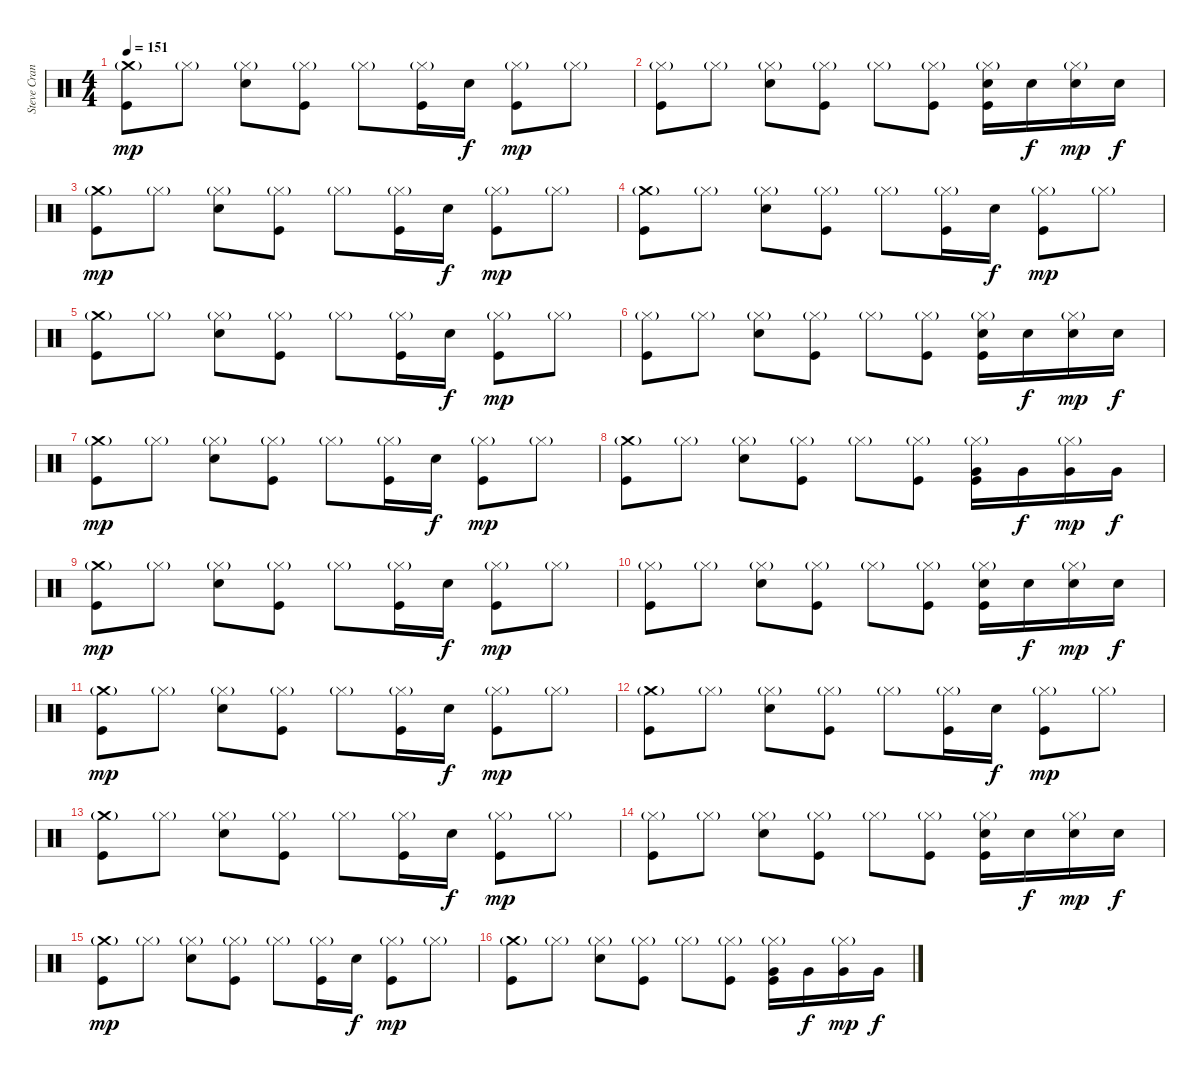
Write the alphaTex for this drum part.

\track ("Steve Crane" "Steve Cran") {instrument percussion}
\staff {score}
\articulation defaults
\ts (4 4)
\tempo 151
\clef neutral
\ks c
("Crash medium (hit)"{g} "Kick (hit)").8{dy mp} "Hi-Hat (closed)"{g}.8 ("Hi-Hat (closed)"{g} "Snare (hit) 2").8 ("Hi-Hat (closed)"{g} "Kick (hit)").8 "Hi-Hat (closed)"{g}.8 ("Hi-Hat (closed)"{g} "Kick (hit)").16 "Snare (hit) 2".16{dy f} ("Hi-Hat (closed)"{g} "Kick (hit)").8{dy mp} "Hi-Hat (closed)"{g}.8 |
("Hi-Hat (closed)"{g} "Kick (hit)").8 "Hi-Hat (closed)"{g}.8 ("Hi-Hat (closed)"{g} "Snare (hit) 2").8 ("Hi-Hat (closed)"{g} "Kick (hit)").8 "Hi-Hat (closed)"{g}.8 ("Hi-Hat (closed)"{g} "Kick (hit)").8 ("Hi-Hat (closed)"{g} "Snare (hit) 2" "Kick (hit)").16 "Snare (hit) 2".16{dy f} ("Hi-Hat (closed)"{g} "Snare (hit) 2").16{dy mp} "Snare (hit) 2".16{dy f} |
("Crash medium (hit)"{g} "Kick (hit)").8{dy mp} "Hi-Hat (closed)"{g}.8 ("Hi-Hat (closed)"{g} "Snare (hit) 2").8 ("Hi-Hat (closed)"{g} "Kick (hit)").8 "Hi-Hat (closed)"{g}.8 ("Hi-Hat (closed)"{g} "Kick (hit)").16 "Snare (hit) 2".16{dy f} ("Hi-Hat (closed)"{g} "Kick (hit)").8{dy mp} "Hi-Hat (closed)"{g}.8 |
("Crash medium (hit)"{g} "Kick (hit)").8 "Hi-Hat (closed)"{g}.8 ("Hi-Hat (closed)"{g} "Snare (hit) 2").8 ("Hi-Hat (closed)"{g} "Kick (hit)").8 "Hi-Hat (closed)"{g}.8 ("Hi-Hat (closed)"{g} "Kick (hit)").16 "Snare (hit) 2".16{dy f} ("Hi-Hat (closed)"{g} "Kick (hit)").8{dy mp} "Hi-Hat (closed)"{g}.8 |
("Crash medium (hit)"{g} "Kick (hit)").8 "Hi-Hat (closed)"{g}.8 ("Hi-Hat (closed)"{g} "Snare (hit) 2").8 ("Hi-Hat (closed)"{g} "Kick (hit)").8 "Hi-Hat (closed)"{g}.8 ("Hi-Hat (closed)"{g} "Kick (hit)").16 "Snare (hit) 2".16{dy f} ("Hi-Hat (closed)"{g} "Kick (hit)").8{dy mp} "Hi-Hat (closed)"{g}.8 |
("Hi-Hat (closed)"{g} "Kick (hit)").8 "Hi-Hat (closed)"{g}.8 ("Hi-Hat (closed)"{g} "Snare (hit) 2").8 ("Hi-Hat (closed)"{g} "Kick (hit)").8 "Hi-Hat (closed)"{g}.8 ("Hi-Hat (closed)"{g} "Kick (hit)").8 ("Hi-Hat (closed)"{g} "Snare (hit) 2" "Kick (hit)").16 "Snare (hit) 2".16{dy f} ("Hi-Hat (closed)"{g} "Snare (hit) 2").16{dy mp} "Snare (hit) 2".16{dy f} |
("Crash medium (hit)"{g} "Kick (hit)").8{dy mp} "Hi-Hat (closed)"{g}.8 ("Hi-Hat (closed)"{g} "Snare (hit) 2").8 ("Hi-Hat (closed)"{g} "Kick (hit)").8 "Hi-Hat (closed)"{g}.8 ("Hi-Hat (closed)"{g} "Kick (hit)").16 "Snare (hit) 2".16{dy f} ("Hi-Hat (closed)"{g} "Kick (hit)").8{dy mp} "Hi-Hat (closed)"{g}.8 |
("Crash medium (hit)"{g} "Kick (hit)").8 "Hi-Hat (closed)"{g}.8 ("Hi-Hat (closed)"{g} "Snare (hit) 2").8 ("Hi-Hat (closed)"{g} "Kick (hit)").8 "Hi-Hat (closed)"{g}.8 ("Hi-Hat (closed)"{g} "Kick (hit)").8 ("Hi-Hat (closed)"{g} "Very Low Tom (hit)" "Kick (hit)").16 "Very Low Tom (hit)".16{dy f} ("Hi-Hat (closed)"{g} "Very Low Tom (hit)").16{dy mp} "Very Low Tom (hit)".16{dy f} |
("Crash medium (hit)"{g} "Kick (hit)").8{dy mp} "Hi-Hat (closed)"{g}.8 ("Hi-Hat (closed)"{g} "Snare (hit) 2").8 ("Hi-Hat (closed)"{g} "Kick (hit)").8 "Hi-Hat (closed)"{g}.8 ("Hi-Hat (closed)"{g} "Kick (hit)").16 "Snare (hit) 2".16{dy f} ("Hi-Hat (closed)"{g} "Kick (hit)").8{dy mp} "Hi-Hat (closed)"{g}.8 |
("Hi-Hat (closed)"{g} "Kick (hit)").8 "Hi-Hat (closed)"{g}.8 ("Hi-Hat (closed)"{g} "Snare (hit) 2").8 ("Hi-Hat (closed)"{g} "Kick (hit)").8 "Hi-Hat (closed)"{g}.8 ("Hi-Hat (closed)"{g} "Kick (hit)").8 ("Hi-Hat (closed)"{g} "Snare (hit) 2" "Kick (hit)").16 "Snare (hit) 2".16{dy f} ("Hi-Hat (closed)"{g} "Snare (hit) 2").16{dy mp} "Snare (hit) 2".16{dy f} |
("Crash medium (hit)"{g} "Kick (hit)").8{dy mp} "Hi-Hat (closed)"{g}.8 ("Hi-Hat (closed)"{g} "Snare (hit) 2").8 ("Hi-Hat (closed)"{g} "Kick (hit)").8 "Hi-Hat (closed)"{g}.8 ("Hi-Hat (closed)"{g} "Kick (hit)").16 "Snare (hit) 2".16{dy f} ("Hi-Hat (closed)"{g} "Kick (hit)").8{dy mp} "Hi-Hat (closed)"{g}.8 |
("Crash medium (hit)"{g} "Kick (hit)").8 "Hi-Hat (closed)"{g}.8 ("Hi-Hat (closed)"{g} "Snare (hit) 2").8 ("Hi-Hat (closed)"{g} "Kick (hit)").8 "Hi-Hat (closed)"{g}.8 ("Hi-Hat (closed)"{g} "Kick (hit)").16 "Snare (hit) 2".16{dy f} ("Hi-Hat (closed)"{g} "Kick (hit)").8{dy mp} "Hi-Hat (closed)"{g}.8 |
("Crash medium (hit)"{g} "Kick (hit)").8 "Hi-Hat (closed)"{g}.8 ("Hi-Hat (closed)"{g} "Snare (hit) 2").8 ("Hi-Hat (closed)"{g} "Kick (hit)").8 "Hi-Hat (closed)"{g}.8 ("Hi-Hat (closed)"{g} "Kick (hit)").16 "Snare (hit) 2".16{dy f} ("Hi-Hat (closed)"{g} "Kick (hit)").8{dy mp} "Hi-Hat (closed)"{g}.8 |
("Hi-Hat (closed)"{g} "Kick (hit)").8 "Hi-Hat (closed)"{g}.8 ("Hi-Hat (closed)"{g} "Snare (hit) 2").8 ("Hi-Hat (closed)"{g} "Kick (hit)").8 "Hi-Hat (closed)"{g}.8 ("Hi-Hat (closed)"{g} "Kick (hit)").8 ("Hi-Hat (closed)"{g} "Snare (hit) 2" "Kick (hit)").16 "Snare (hit) 2".16{dy f} ("Hi-Hat (closed)"{g} "Snare (hit) 2").16{dy mp} "Snare (hit) 2".16{dy f} |
("Crash medium (hit)"{g} "Kick (hit)").8{dy mp} "Hi-Hat (closed)"{g}.8 ("Hi-Hat (closed)"{g} "Snare (hit) 2").8 ("Hi-Hat (closed)"{g} "Kick (hit)").8 "Hi-Hat (closed)"{g}.8 ("Hi-Hat (closed)"{g} "Kick (hit)").16 "Snare (hit) 2".16{dy f} ("Hi-Hat (closed)"{g} "Kick (hit)").8{dy mp} "Hi-Hat (closed)"{g}.8 |
("Crash medium (hit)"{g} "Kick (hit)").8 "Hi-Hat (closed)"{g}.8 ("Hi-Hat (closed)"{g} "Snare (hit) 2").8 ("Hi-Hat (closed)"{g} "Kick (hit)").8 "Hi-Hat (closed)"{g}.8 ("Hi-Hat (closed)"{g} "Kick (hit)").8 ("Hi-Hat (closed)"{g} "Very Low Tom (hit)" "Kick (hit)").16 "Very Low Tom (hit)".16{dy f} ("Hi-Hat (closed)"{g} "Very Low Tom (hit)").16{dy mp} "Very Low Tom (hit)".16{dy f}
